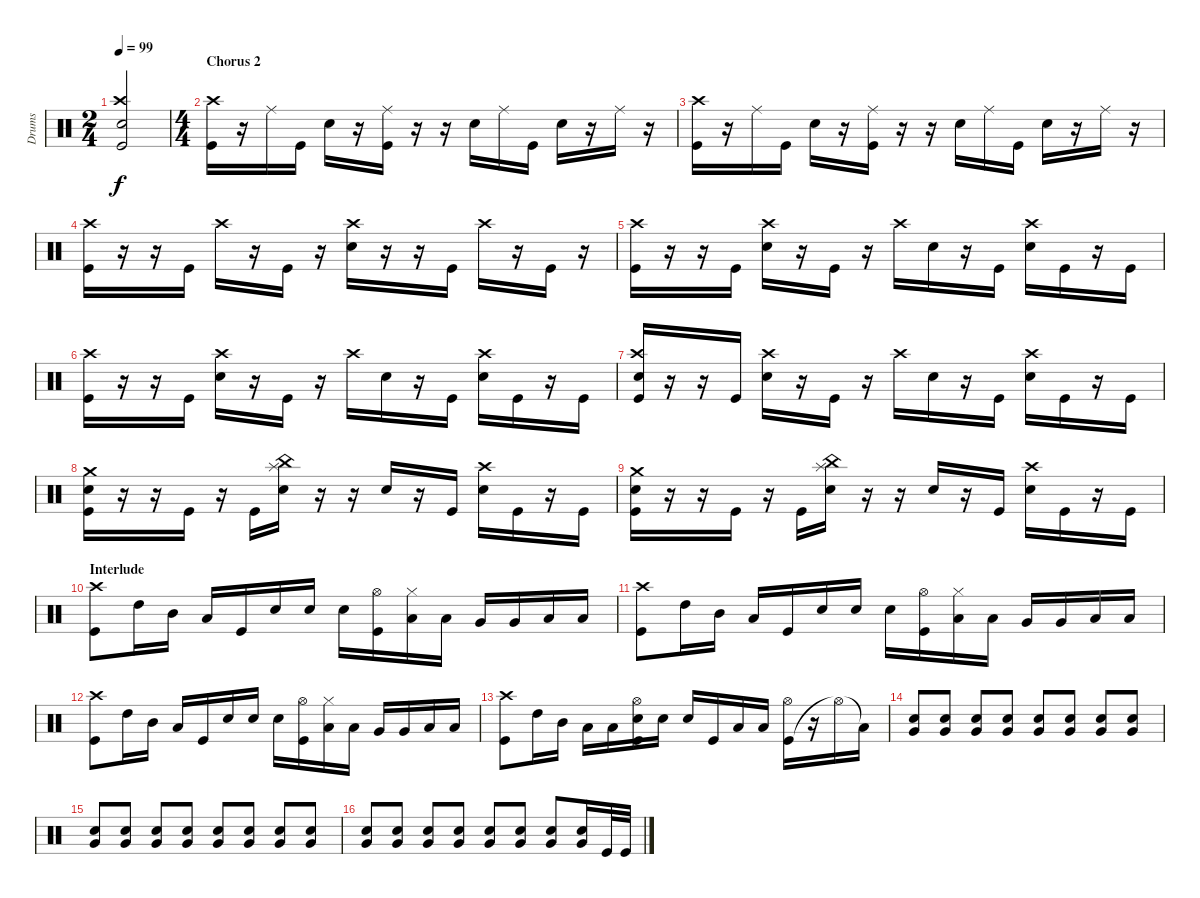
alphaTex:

\track ("Drums" "Drums") {instrument percussion}
\staff {score}
\articulation defaults
\ts (2 4)
\tempo 99
\clef neutral
\ks c
("Electric Snare (hit)" "Crash high (hit)" "Kick (hit)").2{dy f} |
\ts (4 4)
\section ("" "Chorus 2")
("Kick (hit)" "Crash high (hit)").16 r.16 "Ride (middle)".16 "Kick (hit)".16 "Electric Snare (hit)".16 r.16 ("Kick (hit)" "Ride (middle)").16 r.16 r.16 "Electric Snare (hit)".16 "Ride (middle)".16 "Kick (hit)".16 "Electric Snare (hit)".16 r.16 "Ride (middle)".16 r.16 |
("Kick (hit)" "Crash high (hit)").16 r.16 "Ride (middle)".16 "Kick (hit)".16 "Electric Snare (hit)".16 r.16 ("Kick (hit)" "Ride (middle)").16 r.16 r.16 "Electric Snare (hit)".16 "Ride (middle)".16 "Kick (hit)".16 "Electric Snare (hit)".16 r.16 "Ride (middle)".16 r.16 |
("Kick (hit)" "Crash high (hit)").16 r.16 r.16 "Kick (hit)".16 "Crash high (hit)".16 r.16 "Kick (hit)".16 r.16 ("Electric Snare (hit)" "Crash high (hit)").16 r.16 r.16 "Kick (hit)".16 "Crash high (hit)".16 r.16 "Kick (hit)".16 r.16 |
("Kick (hit)" "Crash high (hit)").16 r.16 r.16 "Kick (hit)".16 ("Electric Snare (hit)" "Crash high (hit)").16 r.16 "Kick (hit)".16 r.16 "Crash high (hit)".16 "Electric Snare (hit)".16 r.16 "Kick (hit)".16 ("Electric Snare (hit)" "Crash high (hit)").16 "Kick (hit)".16 r.16 "Kick (hit)".16 |
("Kick (hit)" "Crash high (hit)").16 r.16 r.16 "Kick (hit)".16 ("Electric Snare (hit)" "Crash high (hit)").16 r.16 "Kick (hit)".16 r.16 "Crash high (hit)".16 "Electric Snare (hit)".16 r.16 "Kick (hit)".16 ("Electric Snare (hit)" "Crash high (hit)").16 "Kick (hit)".16 r.16 "Kick (hit)".16 |
("Kick (hit)" "Electric Snare (hit)" "Crash high (hit)").16 r.16 r.16 "Kick (hit)".16 ("Electric Snare (hit)" "Crash high (hit)").16 r.16 "Kick (hit)".16 r.16 "Crash high (hit)".16 "Electric Snare (hit)".16 r.16 "Kick (hit)".16 ("Electric Snare (hit)" "Crash high (hit)").16 "Kick (hit)".16 r.16 "Kick (hit)".16 |
("Kick (hit)" "Electric Snare (hit)" "Crash medium (hit)").16 r.16 r.16 "Kick (hit)".16 r.16 "Kick (hit)".16 ("Splash (hit)" "Electric Snare (hit)" "China (hit)").16 r.16 r.16 "Electric Snare (hit)".16 r.16 "Kick (hit)".16 ("Electric Snare (hit)" "Crash high (hit)").16 "Kick (hit)".16 r.16 "Kick (hit)".16 |
("Kick (hit)" "Electric Snare (hit)" "Crash medium (hit)").16 r.16 r.16 "Kick (hit)".16 r.16 "Kick (hit)".16 ("Splash (hit)" "Electric Snare (hit)" "China (hit)").16 r.16 r.16 "Electric Snare (hit)".16 r.16 "Kick (hit)".16 ("Electric Snare (hit)" "Crash high (hit)").16 "Kick (hit)".16 r.16 "Kick (hit)".16 |
\section ("" "Interlude")
("Crash high (hit)" "Kick (hit)").8{volume 8} "High Tom (hit)".16 "Mid Tom (hit)".16 "Low Tom (hit)".16 "Kick (hit)".16 "Electric Snare (hit)".16 "Electric Snare (hit)".16 "Electric Snare (hit)".16 ("Kick (hit)" "Hi-Hat (open)").16 ("Low Tom (hit)" "Hi-Hat (closed)").16 "Low Tom (hit)".16 "Very Low Tom (hit)".16 "Very Low Tom (hit)".16 "Low Floor Tom (hit)".16 "Low Floor Tom (hit)".16 |
("Crash high (hit)" "Kick (hit)").8 "High Tom (hit)".16 "Mid Tom (hit)".16 "Low Tom (hit)".16 "Kick (hit)".16 "Electric Snare (hit)".16 "Electric Snare (hit)".16 "Electric Snare (hit)".16 ("Kick (hit)" "Hi-Hat (open)").16 ("Low Tom (hit)" "Hi-Hat (closed)").16 "Low Tom (hit)".16 "Very Low Tom (hit)".16 "Very Low Tom (hit)".16 "Low Floor Tom (hit)".16 "Low Floor Tom (hit)".16 |
("Crash high (hit)" "Kick (hit)").8 "High Tom (hit)".16 "Mid Tom (hit)".16 "Low Tom (hit)".16 "Kick (hit)".16 "Electric Snare (hit)".16 "Electric Snare (hit)".16 "Electric Snare (hit)".16 ("Kick (hit)" "Hi-Hat (open)").16 ("Low Tom (hit)" "Hi-Hat (closed)").16 "Low Tom (hit)".16 "Very Low Tom (hit)".16 "Very Low Tom (hit)".16 "Low Floor Tom (hit)".16 "Low Floor Tom (hit)".16 |
("Crash high (hit)" "Kick (hit)").8 "High Tom (hit)".16 "Mid Tom (hit)".16 "Low Tom (hit)".16 "Low Tom (hit)".16 ("Kick (hit)" "Electric Snare (hit)" "Hi-Hat (open)").16 "Electric Snare (hit)".16 "Electric Snare (hit)".16 "Kick (hit)".16 "Low Tom (hit)".16 "Low Tom (hit)".16 ("Kick (hit)" "Hi-Hat (open)").16 r.16 "Hi-Hat (open)"{t}.16 "Low Floor Tom (hit)"{t}.16 |
("Very Low Tom (hit)" "Electric Snare (hit)").8{volume 9} ("Very Low Tom (hit)" "Electric Snare (hit)").8 ("Very Low Tom (hit)" "Electric Snare (hit)").8 ("Very Low Tom (hit)" "Electric Snare (hit)").8 ("Very Low Tom (hit)" "Electric Snare (hit)").8 ("Very Low Tom (hit)" "Electric Snare (hit)").8 ("Very Low Tom (hit)" "Electric Snare (hit)").8 ("Very Low Tom (hit)" "Electric Snare (hit)").8 |
("Very Low Tom (hit)" "Electric Snare (hit)").8{volume 10} ("Very Low Tom (hit)" "Electric Snare (hit)").8 ("Very Low Tom (hit)" "Electric Snare (hit)").8 ("Very Low Tom (hit)" "Electric Snare (hit)").8 ("Very Low Tom (hit)" "Electric Snare (hit)").8 ("Very Low Tom (hit)" "Electric Snare (hit)").8 ("Very Low Tom (hit)" "Electric Snare (hit)").8 ("Very Low Tom (hit)" "Electric Snare (hit)").8 |
("Very Low Tom (hit)" "Electric Snare (hit)").8{volume 12} ("Very Low Tom (hit)" "Electric Snare (hit)").8 ("Very Low Tom (hit)" "Electric Snare (hit)").8 ("Very Low Tom (hit)" "Electric Snare (hit)").8 ("Very Low Tom (hit)" "Electric Snare (hit)").8 ("Very Low Tom (hit)" "Electric Snare (hit)").8 ("Very Low Tom (hit)" "Electric Snare (hit)").8 ("Very Low Tom (hit)" "Electric Snare (hit)").16 "Kick (hit)".32 "Kick (hit)".32
